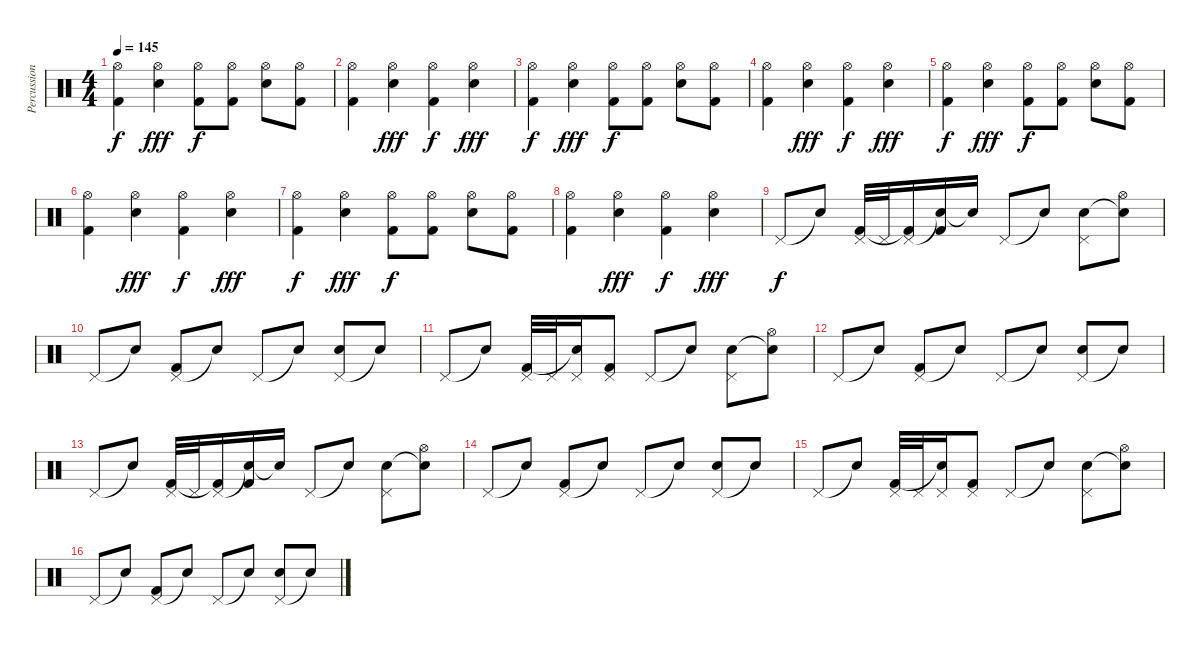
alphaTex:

\track ("Percussion" "Percussion") {instrument percussion}
\staff {score}
\articulation defaults
\ts (4 4)
\tempo 145
\clef neutral
\ks c
("Hi-Hat (open)" "Kick (hit) 2").4{dy f} ("Hi-Hat (open)" "Snare (hit) 2").4{dy fff} ("Hi-Hat (open)" "Kick (hit) 2").8{dy f} ("Hi-Hat (open)" "Kick (hit) 2").8 ("Hi-Hat (open)" "Snare (hit) 2").8 ("Hi-Hat (open)" "Kick (hit) 2").8 |
("Hi-Hat (open)" "Kick (hit) 2").4 ("Hi-Hat (open)" "Snare (hit) 2").4{dy fff} ("Hi-Hat (open)" "Kick (hit) 2").4{dy f} ("Hi-Hat (open)" "Snare (hit) 2").4{dy fff} |
("Hi-Hat (open)" "Kick (hit) 2").4{dy f} ("Hi-Hat (open)" "Snare (hit) 2").4{dy fff} ("Hi-Hat (open)" "Kick (hit) 2").8{dy f} ("Hi-Hat (open)" "Kick (hit) 2").8 ("Hi-Hat (open)" "Snare (hit) 2").8 ("Hi-Hat (open)" "Kick (hit) 2").8 |
("Hi-Hat (open)" "Kick (hit) 2").4 ("Hi-Hat (open)" "Snare (hit) 2").4{dy fff} ("Hi-Hat (open)" "Kick (hit) 2").4{dy f} ("Hi-Hat (open)" "Snare (hit) 2").4{dy fff} |
("Hi-Hat (open)" "Kick (hit) 2").4{dy f} ("Hi-Hat (open)" "Snare (hit) 2").4{dy fff} ("Hi-Hat (open)" "Kick (hit) 2").8{dy f} ("Hi-Hat (open)" "Kick (hit) 2").8 ("Hi-Hat (open)" "Snare (hit) 2").8 ("Hi-Hat (open)" "Kick (hit) 2").8 |
("Hi-Hat (open)" "Kick (hit) 2").4 ("Hi-Hat (open)" "Snare (hit) 2").4{dy fff} ("Hi-Hat (open)" "Kick (hit) 2").4{dy f} ("Hi-Hat (open)" "Snare (hit) 2").4{dy fff} |
("Hi-Hat (open)" "Kick (hit) 2").4{dy f} ("Hi-Hat (open)" "Snare (hit) 2").4{dy fff} ("Hi-Hat (open)" "Kick (hit) 2").8{dy f} ("Hi-Hat (open)" "Kick (hit) 2").8 ("Hi-Hat (open)" "Snare (hit) 2").8 ("Hi-Hat (open)" "Kick (hit) 2").8 |
("Hi-Hat (open)" "Kick (hit) 2").4 ("Hi-Hat (open)" "Snare (hit) 2").4{dy fff} ("Hi-Hat (open)" "Kick (hit) 2").4{dy f} ("Hi-Hat (open)" "Snare (hit) 2").4{dy fff} |
"Pedal Hi-Hat (hit)".8{dy f} "Snare (hit)"{t}.8 ("Pedal Hi-Hat (hit)" "Kick (hit) 2").32 "Pedal Hi-Hat (hit)".32 ("Pedal Hi-Hat (hit)" "Kick (hit) 2"{t}).16 ("Snare (hit)"{t} "Kick (hit) 2").16 "Snare (hit)"{t}.16 "Pedal Hi-Hat (hit)".8 "Snare (hit)"{t}.8 ("Pedal Hi-Hat (hit)" "Snare (hit) 2").8 ("Hi-Hat (open)" "Snare (hit)"{t}).8 |
"Pedal Hi-Hat (hit)".8 "Snare (hit)"{t}.8 ("Pedal Hi-Hat (hit)" "Kick (hit) 2").8 "Snare (hit)"{t}.8 "Pedal Hi-Hat (hit)".8 "Snare (hit)"{t}.8 ("Pedal Hi-Hat (hit)" "Snare (hit) 2").8 "Snare (hit)"{t}.8 |
"Pedal Hi-Hat (hit)".8 "Snare (hit)"{t}.8 ("Pedal Hi-Hat (hit)" "Kick (hit) 2").32 "Pedal Hi-Hat (hit)".32 ("Pedal Hi-Hat (hit)" "Snare (hit)"{t}).16 ("Pedal Hi-Hat (hit)" "Kick (hit) 2").8 "Pedal Hi-Hat (hit)".8 "Snare (hit)"{t}.8 ("Pedal Hi-Hat (hit)" "Snare (hit) 2").8 ("Hi-Hat (open)" "Snare (hit)"{t}).8 |
"Pedal Hi-Hat (hit)".8 "Snare (hit)"{t}.8 ("Pedal Hi-Hat (hit)" "Kick (hit) 2").8 "Snare (hit)"{t}.8 "Pedal Hi-Hat (hit)".8 "Snare (hit)"{t}.8 ("Pedal Hi-Hat (hit)" "Snare (hit) 2").8 "Snare (hit)"{t}.8 |
"Pedal Hi-Hat (hit)".8 "Snare (hit)"{t}.8 ("Pedal Hi-Hat (hit)" "Kick (hit) 2").32 "Pedal Hi-Hat (hit)".32 ("Pedal Hi-Hat (hit)" "Kick (hit) 2"{t}).16 ("Snare (hit)"{t} "Kick (hit) 2").16 "Snare (hit)"{t}.16 "Pedal Hi-Hat (hit)".8 "Snare (hit)"{t}.8 ("Pedal Hi-Hat (hit)" "Snare (hit) 2").8 ("Hi-Hat (open)" "Snare (hit)"{t}).8 |
"Pedal Hi-Hat (hit)".8 "Snare (hit)"{t}.8 ("Pedal Hi-Hat (hit)" "Kick (hit) 2").8 "Snare (hit)"{t}.8 "Pedal Hi-Hat (hit)".8 "Snare (hit)"{t}.8 ("Pedal Hi-Hat (hit)" "Snare (hit) 2").8 "Snare (hit)"{t}.8 |
"Pedal Hi-Hat (hit)".8 "Snare (hit)"{t}.8 ("Pedal Hi-Hat (hit)" "Kick (hit) 2").32 "Pedal Hi-Hat (hit)".32 ("Pedal Hi-Hat (hit)" "Snare (hit)"{t}).16 ("Pedal Hi-Hat (hit)" "Kick (hit) 2").8 "Pedal Hi-Hat (hit)".8 "Snare (hit)"{t}.8 ("Pedal Hi-Hat (hit)" "Snare (hit) 2").8 ("Hi-Hat (open)" "Snare (hit)"{t}).8 |
"Pedal Hi-Hat (hit)".8 "Snare (hit)"{t}.8 ("Pedal Hi-Hat (hit)" "Kick (hit) 2").8 "Snare (hit)"{t}.8 "Pedal Hi-Hat (hit)".8 "Snare (hit)"{t}.8 ("Pedal Hi-Hat (hit)" "Snare (hit) 2").8 "Snare (hit)"{t}.8
